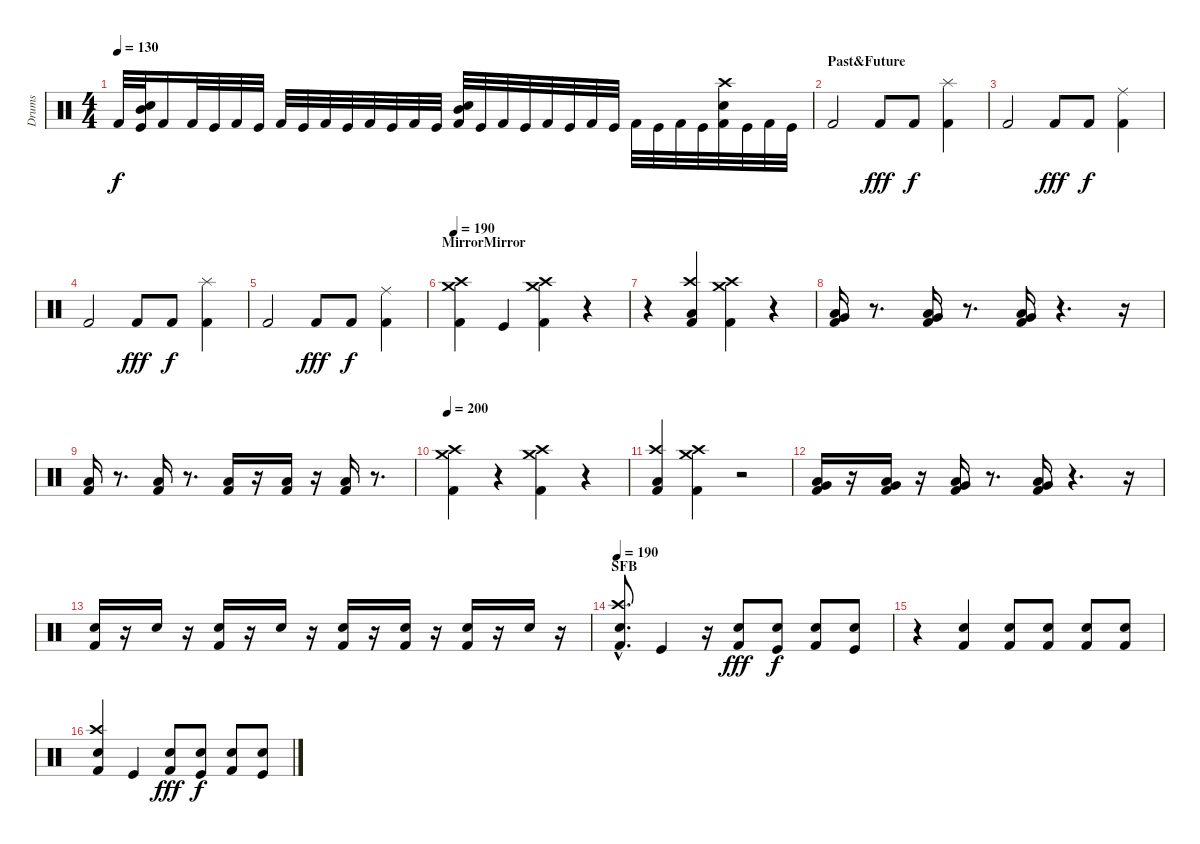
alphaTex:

\track ("Drums" "Drums") {instrument percussion}
\staff {score}
\articulation defaults
\ts (4 4)
\tempo 130
\clef neutral
\ks c "Kick (hit) 2".32{dy f}
("Mid Tom (hit)" "Kick (hit)" "Electric Snare (hit)").32 "Kick (hit) 2".16 "Kick (hit) 2".32 "Kick (hit)".32 "Kick (hit) 2".32 "Kick (hit)".32 "Kick (hit) 2".32 "Kick (hit)".32 "Kick (hit) 2".32 "Kick (hit)".32 "Kick (hit) 2".32 "Kick (hit)".32 "Kick (hit) 2".32 "Kick (hit)".32 ("Mid Tom (hit)" "Kick (hit) 2" "Electric Snare (hit)").32 "Kick (hit)".32 "Kick (hit) 2".32 "Kick (hit)".32 "Kick (hit) 2".32 "Kick (hit)".32 "Kick (hit) 2".32 "Kick (hit)".32 "Kick (hit) 2".32 "Kick (hit)".32 "Kick (hit) 2".32 "Kick (hit)".32 ("Crash high (hit)" "Kick (hit) 2" "Electric Snare (hit)").32 "Kick (hit)".32 "Kick (hit) 2".32 "Kick (hit)".32 |
\section ("" "Past&Future")
"Kick (hit) 2".2 "Kick (hit) 2".8{dy fff} "Kick (hit) 2".8{dy f} ("Kick (hit) 2" "Splash (hit)").4 |
"Kick (hit) 2".2 "Kick (hit) 2".8{dy fff} "Kick (hit) 2".8{dy f} ("Kick (hit) 2" "Ride (middle)").4 |
"Kick (hit) 2".2 "Kick (hit) 2".8{dy fff} "Kick (hit) 2".8{dy f} ("Kick (hit) 2" "Splash (hit)").4 |
"Kick (hit) 2".2 "Kick (hit) 2".8{dy fff} "Kick (hit) 2".8{dy f} ("Kick (hit) 2" "Ride (middle)").4 |
\section ("" "MirrorMirror")
\tempo 190
("Kick (hit) 2" "Crash high (hit)" "Crash medium (hit)").4 "Kick (hit)".4 ("Kick (hit) 2" "Crash high (hit)" "Crash medium (hit)").4 r.4 |
r.4 ("Kick (hit) 2" "Low Floor Tom (hit)" "Crash high (hit)").4 ("Kick (hit) 2" "Crash high (hit)" "Crash medium (hit)").4 r.4 |
("Kick (hit) 2" "Low Floor Tom (hit)" "Very Low Tom (hit)").16 r.8{d} ("Kick (hit) 2" "Low Floor Tom (hit)" "Very Low Tom (hit)").16 r.8{d} ("Kick (hit) 2" "Low Floor Tom (hit)" "Very Low Tom (hit)").16 r.4{d} r.16 |
("Kick (hit) 2" "Low Floor Tom (hit)").16 r.8{d} ("Kick (hit) 2" "Low Floor Tom (hit)").16 r.8{d} ("Kick (hit) 2" "Low Floor Tom (hit)").16 r.16 ("Kick (hit) 2" "Low Floor Tom (hit)").16 r.16 ("Kick (hit) 2" "Low Floor Tom (hit)").16 r.8{d} |
\tempo 200
("Kick (hit) 2" "Crash high (hit)" "Crash medium (hit)").4 r.4 ("Kick (hit) 2" "Crash high (hit)" "Crash medium (hit)").4 r.4 |
("Kick (hit) 2" "Low Floor Tom (hit)" "Crash high (hit)").4 ("Kick (hit) 2" "Crash high (hit)" "Crash medium (hit)").4 r.2 |
("Kick (hit) 2" "Low Floor Tom (hit)" "Very Low Tom (hit)").16 r.16 ("Kick (hit) 2" "Low Floor Tom (hit)" "Very Low Tom (hit)").16 r.16 ("Kick (hit) 2" "Low Floor Tom (hit)" "Very Low Tom (hit)").16 r.8{d} ("Kick (hit) 2" "Low Floor Tom (hit)" "Very Low Tom (hit)").16 r.4{d} r.16 |
("Kick (hit) 2" "Snare (hit) 2").16 r.16 "Snare (hit) 2".16 r.16 ("Kick (hit) 2" "Snare (hit) 2").16 r.16 "Snare (hit) 2".16 r.16 ("Kick (hit) 2" "Snare (hit) 2").16 r.16 ("Kick (hit) 2" "Snare (hit) 2").16 r.16 ("Kick (hit) 2" "Snare (hit) 2").16 r.16 "Snare (hit) 2".16 r.16 |
\section ("" "SFB")
\tempo 190
("Snare (hit) 2"{hac} "Crash high (hit)"{hac} "Kick (hit) 2"{hac}).8{d} "Kick (hit)".4 r.16 ("Kick (hit) 2" "Snare (hit) 2").8{dy fff} ("Kick (hit)" "Electric Snare (hit)").8{dy f} ("Kick (hit) 2" "Snare (hit) 2").8 ("Kick (hit)" "Electric Snare (hit)").8 |
r.4 ("Kick (hit) 2" "Electric Snare (hit)").4 ("Kick (hit) 2" "Electric Snare (hit)").8 ("Kick (hit) 2" "Snare (hit) 2").8 ("Kick (hit) 2" "Electric Snare (hit)").8 ("Kick (hit) 2" "Snare (hit) 2").8 |
("Snare (hit) 2" "Crash high (hit)" "Kick (hit) 2").4 "Kick (hit)".4 ("Kick (hit) 2" "Snare (hit) 2").8{dy fff} ("Kick (hit)" "Electric Snare (hit)").8{dy f} ("Kick (hit) 2" "Snare (hit) 2").8 ("Kick (hit)" "Electric Snare (hit)").8
